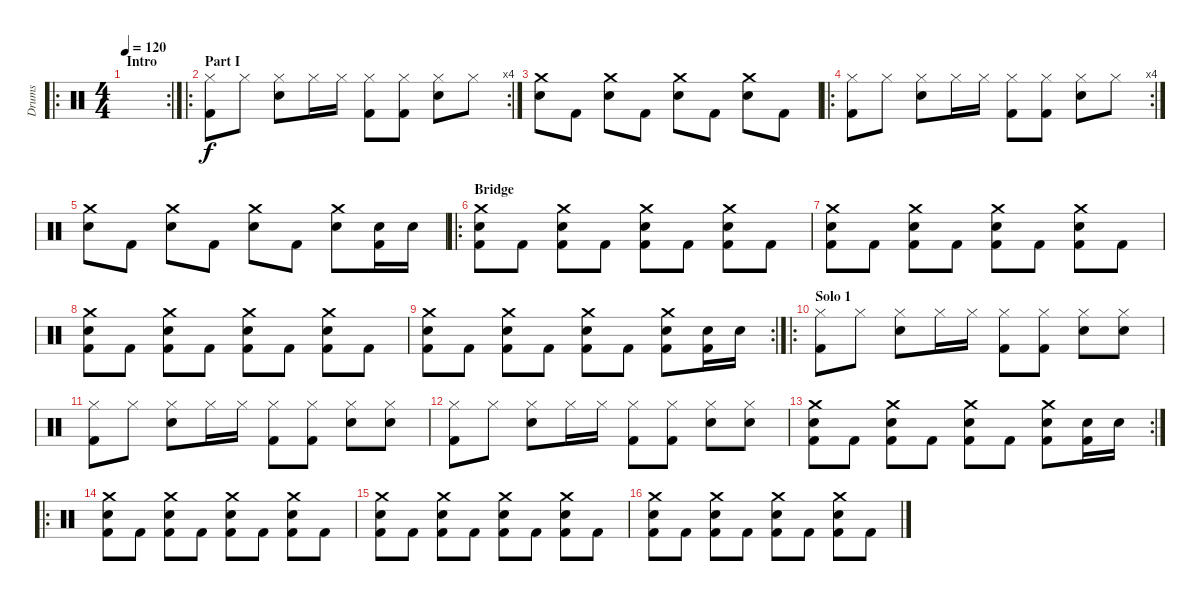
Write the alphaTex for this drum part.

\track ("Drums" "Drums") {instrument percussion}
\staff {score}
\articulation defaults
\ro
\rc 2
\ts (4 4)
\section ("" "Intro")
\tempo 120
\clef neutral
\ks c
|
\ro
\rc 4
\section ("" "Part I")
("Hi-Hat (closed)" "Kick (hit) 2").8 "Hi-Hat (closed)".8 ("Hi-Hat (closed)" "Snare (hit) 2").8 "Hi-Hat (closed)".16 "Hi-Hat (closed)".16 ("Hi-Hat (closed)" "Kick (hit) 2").8 ("Hi-Hat (closed)" "Kick (hit) 2").8 ("Hi-Hat (closed)" "Snare (hit) 2").8 "Hi-Hat (closed)".8 |
("Crash medium (hit)" "Snare (hit) 2").8 "Kick (hit) 2".8 ("Crash medium (hit)" "Snare (hit) 2").8 "Kick (hit) 2".8 ("Crash medium (hit)" "Snare (hit) 2").8 "Kick (hit) 2".8 ("Crash medium (hit)" "Snare (hit) 2").8 "Kick (hit) 2".8 |
\ro
\rc 4
("Hi-Hat (closed)" "Kick (hit) 2").8 "Hi-Hat (closed)".8 ("Hi-Hat (closed)" "Snare (hit) 2").8 "Hi-Hat (closed)".16 "Hi-Hat (closed)".16 ("Hi-Hat (closed)" "Kick (hit) 2").8 ("Hi-Hat (closed)" "Kick (hit) 2").8 ("Hi-Hat (closed)" "Snare (hit) 2").8 "Hi-Hat (closed)".8 |
("Crash medium (hit)" "Snare (hit) 2").8 "Kick (hit) 2".8 ("Crash medium (hit)" "Snare (hit) 2").8 "Kick (hit) 2".8 ("Crash medium (hit)" "Snare (hit) 2").8 "Kick (hit) 2".8 ("Crash medium (hit)" "Snare (hit) 2").8 ("Snare (hit) 2" "Kick (hit) 2").16 "Snare (hit) 2".16 |
\ro
\section ("" "Bridge")
("Crash medium (hit)" "Snare (hit) 2" "Kick (hit) 2").8 "Kick (hit) 2".8 ("Crash medium (hit)" "Snare (hit) 2" "Kick (hit) 2").8 "Kick (hit) 2".8 ("Crash medium (hit)" "Snare (hit) 2" "Kick (hit) 2").8 "Kick (hit) 2".8 ("Crash medium (hit)" "Snare (hit) 2" "Kick (hit) 2").8 "Kick (hit) 2".8 |
("Crash medium (hit)" "Snare (hit) 2" "Kick (hit) 2").8 "Kick (hit) 2".8 ("Crash medium (hit)" "Snare (hit) 2" "Kick (hit) 2").8 "Kick (hit) 2".8 ("Crash medium (hit)" "Snare (hit) 2" "Kick (hit) 2").8 "Kick (hit) 2".8 ("Crash medium (hit)" "Snare (hit) 2" "Kick (hit) 2").8 "Kick (hit) 2".8 |
("Crash medium (hit)" "Snare (hit) 2" "Kick (hit) 2").8 "Kick (hit) 2".8 ("Crash medium (hit)" "Snare (hit) 2" "Kick (hit) 2").8 "Kick (hit) 2".8 ("Crash medium (hit)" "Snare (hit) 2" "Kick (hit) 2").8 "Kick (hit) 2".8 ("Crash medium (hit)" "Snare (hit) 2" "Kick (hit) 2").8 "Kick (hit) 2".8 |
\rc 2
("Crash medium (hit)" "Snare (hit) 2" "Kick (hit) 2").8 "Kick (hit) 2".8 ("Crash medium (hit)" "Snare (hit) 2" "Kick (hit) 2").8 "Kick (hit) 2".8 ("Crash medium (hit)" "Snare (hit) 2" "Kick (hit) 2").8 "Kick (hit) 2".8 ("Crash medium (hit)" "Snare (hit) 2" "Kick (hit) 2").8 ("Snare (hit) 2" "Kick (hit) 2").16 "Snare (hit) 2".16 |
\ro
\section ("" "Solo 1")
("Hi-Hat (closed)" "Kick (hit) 2").8 "Hi-Hat (closed)".8 ("Hi-Hat (closed)" "Snare (hit) 2").8 "Hi-Hat (closed)".16 "Hi-Hat (closed)".16 ("Hi-Hat (closed)" "Kick (hit) 2").8 ("Hi-Hat (closed)" "Kick (hit) 2").8 ("Hi-Hat (closed)" "Snare (hit) 2").8 ("Hi-Hat (closed)" "Snare (hit) 2").8 |
("Hi-Hat (closed)" "Kick (hit) 2").8 "Hi-Hat (closed)".8 ("Hi-Hat (closed)" "Snare (hit) 2").8 "Hi-Hat (closed)".16 "Hi-Hat (closed)".16 ("Hi-Hat (closed)" "Kick (hit) 2").8 ("Hi-Hat (closed)" "Kick (hit) 2").8 ("Hi-Hat (closed)" "Snare (hit) 2").8 ("Hi-Hat (closed)" "Snare (hit) 2").8 |
("Hi-Hat (closed)" "Kick (hit) 2").8 "Hi-Hat (closed)".8 ("Hi-Hat (closed)" "Snare (hit) 2").8 "Hi-Hat (closed)".16 "Hi-Hat (closed)".16 ("Hi-Hat (closed)" "Kick (hit) 2").8 ("Hi-Hat (closed)" "Kick (hit) 2").8 ("Hi-Hat (closed)" "Snare (hit) 2").8 ("Hi-Hat (closed)" "Snare (hit) 2").8 |
\rc 2
("Crash medium (hit)" "Snare (hit) 2" "Kick (hit) 2").8 "Kick (hit) 2".8 ("Crash medium (hit)" "Snare (hit) 2" "Kick (hit) 2").8 "Kick (hit) 2".8 ("Crash medium (hit)" "Snare (hit) 2" "Kick (hit) 2").8 "Kick (hit) 2".8 ("Crash medium (hit)" "Snare (hit) 2" "Kick (hit) 2").8 ("Snare (hit) 2" "Kick (hit) 2").16 "Snare (hit) 2".16 |
\ro
("Crash medium (hit)" "Snare (hit) 2" "Kick (hit) 2").8 "Kick (hit) 2".8 ("Crash medium (hit)" "Snare (hit) 2" "Kick (hit) 2").8 "Kick (hit) 2".8 ("Crash medium (hit)" "Snare (hit) 2" "Kick (hit) 2").8 "Kick (hit) 2".8 ("Crash medium (hit)" "Snare (hit) 2" "Kick (hit) 2").8 "Kick (hit) 2".8 |
("Crash medium (hit)" "Snare (hit) 2" "Kick (hit) 2").8 "Kick (hit) 2".8 ("Crash medium (hit)" "Snare (hit) 2" "Kick (hit) 2").8 "Kick (hit) 2".8 ("Crash medium (hit)" "Snare (hit) 2" "Kick (hit) 2").8 "Kick (hit) 2".8 ("Crash medium (hit)" "Snare (hit) 2" "Kick (hit) 2").8 "Kick (hit) 2".8 |
("Crash medium (hit)" "Snare (hit) 2" "Kick (hit) 2").8 "Kick (hit) 2".8 ("Crash medium (hit)" "Snare (hit) 2" "Kick (hit) 2").8 "Kick (hit) 2".8 ("Crash medium (hit)" "Snare (hit) 2" "Kick (hit) 2").8 "Kick (hit) 2".8 ("Crash medium (hit)" "Snare (hit) 2" "Kick (hit) 2").8 "Kick (hit) 2".8
